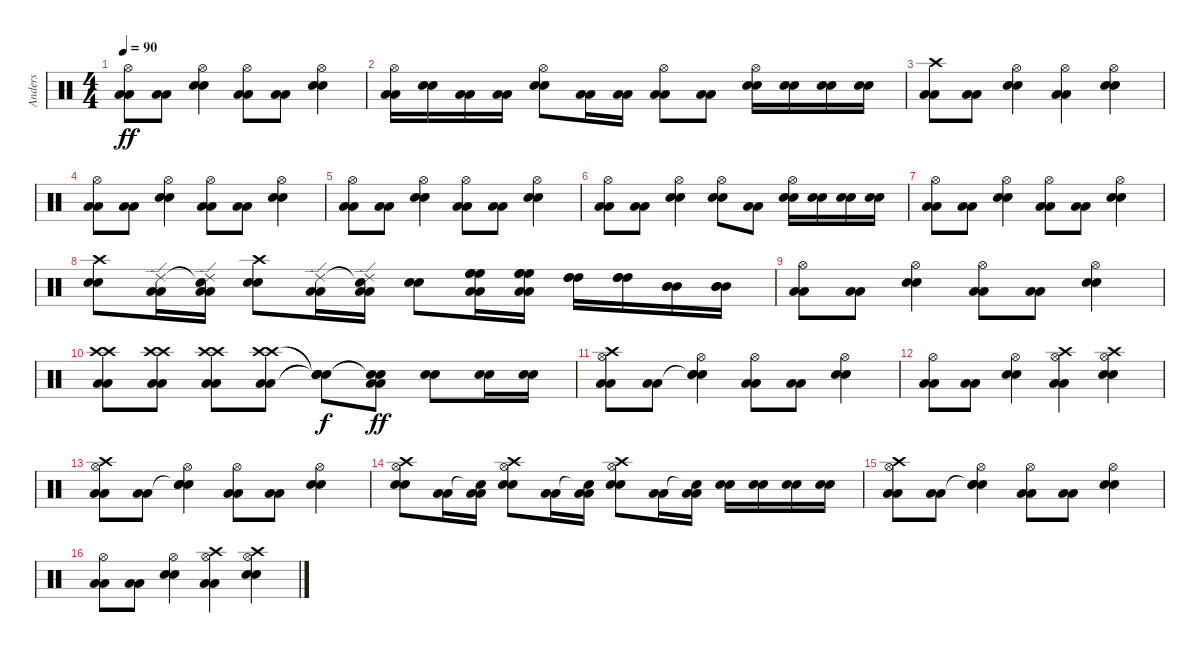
\track ("Anders" "Anders") {instrument percussion}
\staff {score}
\articulation defaults
\ts (4 4)
\tempo 90
\clef neutral
\ks c
("Hi-Hat (open)" "Low Floor Tom (hit)" "Low Floor Tom (hit)").8{dy ff} ("Low Floor Tom (hit)" "Low Floor Tom (hit)").8 ("Hi-Hat (open)" "Electric Snare (hit)" "Electric Snare (hit)").4 ("Hi-Hat (open)" "Low Floor Tom (hit)" "Low Floor Tom (hit)").8 ("Low Floor Tom (hit)" "Low Floor Tom (hit)").8 ("Hi-Hat (open)" "Electric Snare (hit)" "Electric Snare (hit)").4 |
("Hi-Hat (open)" "Low Floor Tom (hit)" "Low Floor Tom (hit)").16 ("Electric Snare (hit)" "Electric Snare (hit)").16 ("Low Floor Tom (hit)" "Low Floor Tom (hit)").16 ("Low Floor Tom (hit)" "Low Floor Tom (hit)").16 ("Hi-Hat (open)" "Electric Snare (hit)" "Electric Snare (hit)").8 ("Low Floor Tom (hit)" "Low Floor Tom (hit)").16 ("Low Floor Tom (hit)" "Low Floor Tom (hit)").16 ("Hi-Hat (open)" "Low Floor Tom (hit)" "Low Floor Tom (hit)").8 ("Low Floor Tom (hit)" "Low Floor Tom (hit)").8 ("Hi-Hat (open)" "Electric Snare (hit)" "Electric Snare (hit)").16 ("Electric Snare (hit)" "Electric Snare (hit)").16 ("Electric Snare (hit)" "Electric Snare (hit)").16 ("Electric Snare (hit)" "Electric Snare (hit)").16 |
("Crash high (hit)" "Low Floor Tom (hit)" "Low Floor Tom (hit)").8 ("Low Floor Tom (hit)" "Low Floor Tom (hit)").8 ("Hi-Hat (open)" "Electric Snare (hit)" "Electric Snare (hit)").4 ("Hi-Hat (open)" "Low Floor Tom (hit)" "Low Floor Tom (hit)").4 ("Hi-Hat (open)" "Electric Snare (hit)" "Electric Snare (hit)").4 |
("Hi-Hat (open)" "Low Floor Tom (hit)" "Low Floor Tom (hit)").8 ("Low Floor Tom (hit)" "Low Floor Tom (hit)").8 ("Hi-Hat (open)" "Electric Snare (hit)" "Electric Snare (hit)").4 ("Hi-Hat (open)" "Low Floor Tom (hit)" "Low Floor Tom (hit)").8 ("Low Floor Tom (hit)" "Low Floor Tom (hit)").8 ("Hi-Hat (open)" "Electric Snare (hit)" "Electric Snare (hit)").4 |
("Hi-Hat (open)" "Low Floor Tom (hit)" "Low Floor Tom (hit)").8 ("Low Floor Tom (hit)" "Low Floor Tom (hit)").8 ("Hi-Hat (open)" "Electric Snare (hit)" "Electric Snare (hit)").4 ("Hi-Hat (open)" "Low Floor Tom (hit)" "Low Floor Tom (hit)").8 ("Low Floor Tom (hit)" "Low Floor Tom (hit)").8 ("Hi-Hat (open)" "Electric Snare (hit)" "Electric Snare (hit)").4 |
("Hi-Hat (open)" "Low Floor Tom (hit)" "Low Floor Tom (hit)").8 ("Low Floor Tom (hit)" "Low Floor Tom (hit)").8 ("Hi-Hat (open)" "Electric Snare (hit)" "Electric Snare (hit)").4 ("Hi-Hat (open)" "Electric Snare (hit)" "Electric Snare (hit)").8 ("Low Tom (hit)" "Low Tom (hit)").8 ("Hi-Hat (open)" "Electric Snare (hit)" "Electric Snare (hit)").16 ("Electric Snare (hit)" "Electric Snare (hit)").16 ("Electric Snare (hit)" "Electric Snare (hit)").16 ("Electric Snare (hit)" "Electric Snare (hit)").16 |
("Hi-Hat (open)" "Low Floor Tom (hit)" "Low Floor Tom (hit)").8 ("Low Floor Tom (hit)" "Low Floor Tom (hit)").8 ("Hi-Hat (open)" "Electric Snare (hit)" "Electric Snare (hit)").4 ("Hi-Hat (open)" "Low Floor Tom (hit)" "Low Floor Tom (hit)").8 ("Low Floor Tom (hit)" "Low Floor Tom (hit)").8 ("Hi-Hat (open)" "Electric Snare (hit)" "Electric Snare (hit)").4 |
("Crash high (hit)" "Electric Snare (hit)" "Electric Snare (hit)").8 ("Ride (edge) 2" "Low Floor Tom (hit)" "Low Floor Tom (hit)").16 ("Snare (hit)"{t} "Ride (edge) 2" "Low Floor Tom (hit)" "Low Floor Tom (hit)").16 ("Crash high (hit)" "Electric Snare (hit)" "Electric Snare (hit)").8 ("Ride (edge) 2" "Low Floor Tom (hit)" "Low Floor Tom (hit)").16 ("Snare (hit)"{t} "Ride (edge) 2" "Low Floor Tom (hit)" "Low Floor Tom (hit)").16 ("Electric Snare (hit)" "Electric Snare (hit)").8 ("High Floor Tom (hit)" "High Floor Tom (hit)" "High Floor Tom (hit)" "Low Floor Tom (hit)" "Low Floor Tom (hit)").16 ("High Floor Tom (hit)" "High Floor Tom (hit)" "High Floor Tom (hit)" "Low Floor Tom (hit)" "Low Floor Tom (hit)").16 ("High Tom (hit)" "High Tom (hit)" "High Tom (hit)").16 ("High Tom (hit)" "High Tom (hit)" "High Tom (hit)").16 ("Mid Tom (hit)" "Mid Tom (hit)" "Mid Tom (hit)").16 ("Mid Tom (hit)" "Mid Tom (hit)" "Mid Tom (hit)").16 |
("Hi-Hat (open)" "Low Floor Tom (hit)" "Low Floor Tom (hit)").8 ("Low Floor Tom (hit)" "Low Floor Tom (hit)").8 ("Hi-Hat (open)" "Electric Snare (hit)" "Electric Snare (hit)").4 ("Hi-Hat (open)" "Low Floor Tom (hit)" "Low Floor Tom (hit)").8 ("Low Floor Tom (hit)" "Low Floor Tom (hit)").8 ("Hi-Hat (open)" "Electric Snare (hit)" "Electric Snare (hit)").4 |
("Crash high (hit)" "Crash high (hit)" "Low Floor Tom (hit)" "Low Floor Tom (hit)").8 ("Crash high (hit)" "Crash high (hit)" "Low Floor Tom (hit)" "Low Floor Tom (hit)").8 ("Crash high (hit)" "Crash high (hit)" "Low Floor Tom (hit)" "Low Floor Tom (hit)").8 ("Crash high (hit)" "Crash high (hit)" "Low Floor Tom (hit)" "Low Floor Tom (hit)").8 ("Snare (hit)"{t} "Snare (hit)"{t} "Electric Snare (hit)"{t} "Snare (hit)"{t}).8{dy f} ("Snare (hit)"{t} "Snare (hit)"{t} "Low Floor Tom (hit)" "Low Floor Tom (hit)").8{dy ff} ("Electric Snare (hit)" "Electric Snare (hit)").8 ("Electric Snare (hit)" "Electric Snare (hit)").16 ("Electric Snare (hit)" "Electric Snare (hit)").16 |
("Hi-Hat (open)" "Crash high (hit)" "Low Floor Tom (hit)" "Low Floor Tom (hit)").8 ("Low Floor Tom (hit)" "Low Floor Tom (hit)").8 ("Hi-Hat (open)" "Snare (hit)"{t} "Electric Snare (hit)" "Electric Snare (hit)").4 ("Hi-Hat (open)" "Low Floor Tom (hit)" "Low Floor Tom (hit)").8 ("Low Floor Tom (hit)" "Low Floor Tom (hit)").8 ("Hi-Hat (open)" "Electric Snare (hit)" "Electric Snare (hit)").4 |
("Hi-Hat (open)" "Low Floor Tom (hit)" "Low Floor Tom (hit)").8 ("Low Floor Tom (hit)" "Low Floor Tom (hit)").8 ("Hi-Hat (open)" "Electric Snare (hit)" "Electric Snare (hit)").4 ("Hi-Hat (open)" "Crash high (hit)" "Low Floor Tom (hit)" "Low Floor Tom (hit)").4 ("Hi-Hat (open)" "Crash high (hit)" "Electric Snare (hit)" "Electric Snare (hit)").4 |
("Hi-Hat (open)" "Crash high (hit)" "Low Floor Tom (hit)" "Low Floor Tom (hit)").8 ("Low Floor Tom (hit)" "Low Floor Tom (hit)").8 ("Hi-Hat (open)" "Snare (hit)"{t} "Electric Snare (hit)" "Electric Snare (hit)").4 ("Hi-Hat (open)" "Low Floor Tom (hit)" "Low Floor Tom (hit)").8 ("Low Floor Tom (hit)" "Low Floor Tom (hit)").8 ("Hi-Hat (open)" "Electric Snare (hit)" "Electric Snare (hit)").4 |
("Hi-Hat (open)" "Crash high (hit)" "Electric Snare (hit)" "Electric Snare (hit)").8 ("Low Floor Tom (hit)" "Low Floor Tom (hit)").16 ("Snare (hit)"{t} "Low Floor Tom (hit)" "Low Floor Tom (hit)").16 ("Hi-Hat (open)" "Crash high (hit)" "Electric Snare (hit)" "Electric Snare (hit)").8 ("Low Floor Tom (hit)" "Low Floor Tom (hit)").16 ("Snare (hit)"{t} "Low Floor Tom (hit)" "Low Floor Tom (hit)").16 ("Hi-Hat (open)" "Crash high (hit)" "Electric Snare (hit)" "Electric Snare (hit)").8 ("Low Floor Tom (hit)" "Low Floor Tom (hit)").16 ("Snare (hit)"{t} "Low Floor Tom (hit)" "Low Floor Tom (hit)").16 ("Electric Snare (hit)" "Electric Snare (hit)").16 ("Electric Snare (hit)" "Electric Snare (hit)").16 ("Electric Snare (hit)" "Electric Snare (hit)").16 ("Electric Snare (hit)" "Electric Snare (hit)").16 |
("Hi-Hat (open)" "Crash high (hit)" "Low Floor Tom (hit)" "Low Floor Tom (hit)").8 ("Low Floor Tom (hit)" "Low Floor Tom (hit)").8 ("Hi-Hat (open)" "Snare (hit)"{t} "Electric Snare (hit)" "Electric Snare (hit)").4 ("Hi-Hat (open)" "Low Floor Tom (hit)" "Low Floor Tom (hit)").8 ("Low Floor Tom (hit)" "Low Floor Tom (hit)").8 ("Hi-Hat (open)" "Electric Snare (hit)" "Electric Snare (hit)").4 |
("Hi-Hat (open)" "Low Floor Tom (hit)" "Low Floor Tom (hit)").8 ("Low Floor Tom (hit)" "Low Floor Tom (hit)").8 ("Hi-Hat (open)" "Electric Snare (hit)" "Electric Snare (hit)").4 ("Hi-Hat (open)" "Crash high (hit)" "Low Floor Tom (hit)" "Low Floor Tom (hit)").4 ("Hi-Hat (open)" "Crash high (hit)" "Electric Snare (hit)" "Electric Snare (hit)").4
